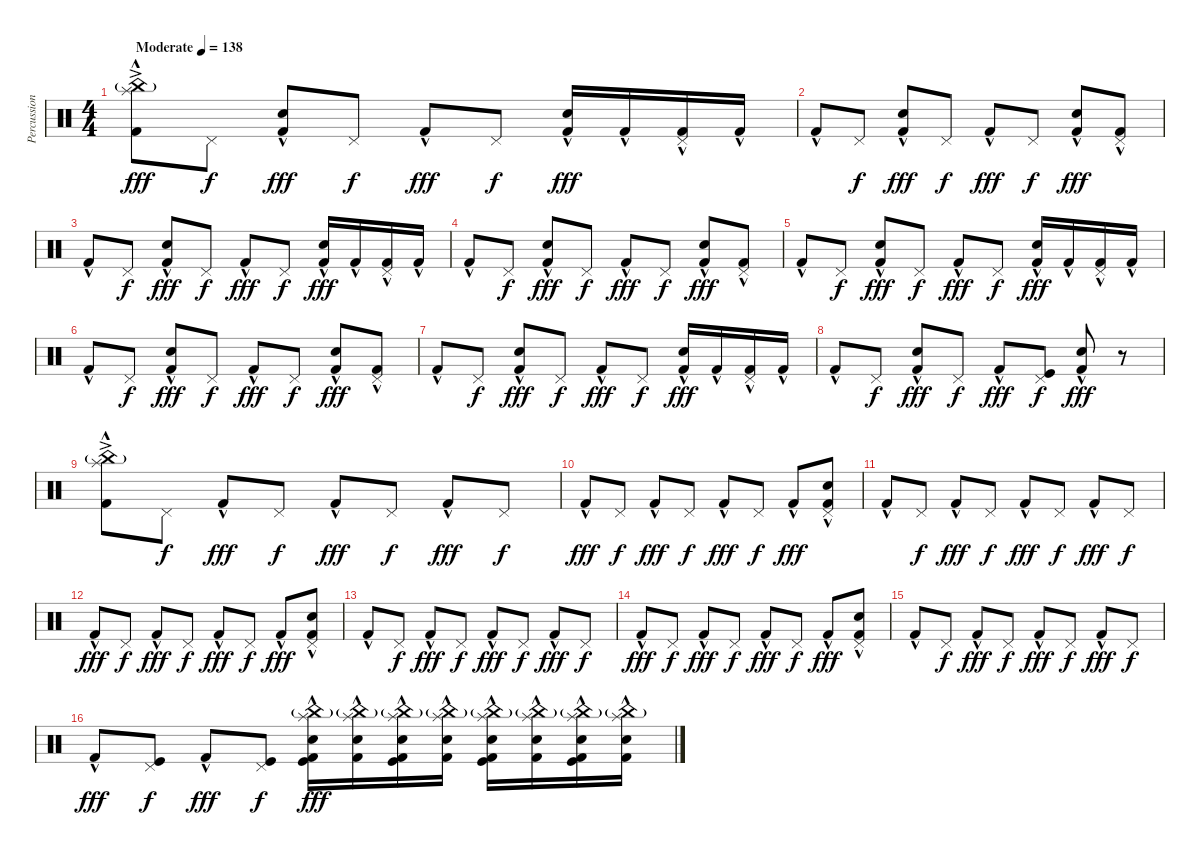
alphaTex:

\track ("Percussions" "Percussion") {instrument percussion}
\staff {score}
\articulation defaults
\ts (4 4)
\tempo (138 "Moderate")
\clef neutral
\ks c
("Splash (hit)"{ac} "China (hit)"{g} "Kick (hit) 2"{hac}).8{dy fff} "Pedal Hi-Hat (hit)".8{dy f} ("Snare (hit) 2" "Kick (hit) 2"{hac}).8{dy fff} "Pedal Hi-Hat (hit)".8{dy f} "Kick (hit) 2"{hac}.8{dy fff} "Pedal Hi-Hat (hit)".8{dy f} ("Snare (hit) 2" "Kick (hit) 2"{hac}).16{dy fff} "Kick (hit) 2"{hac}.16 ("Pedal Hi-Hat (hit)" "Kick (hit) 2"{hac}).16 "Kick (hit) 2"{hac}.16 |
"Kick (hit) 2"{hac}.8 "Pedal Hi-Hat (hit)".8{dy f} ("Snare (hit) 2" "Kick (hit) 2"{hac}).8{dy fff} "Pedal Hi-Hat (hit)".8{dy f} "Kick (hit) 2"{hac}.8{dy fff} "Pedal Hi-Hat (hit)".8{dy f} ("Snare (hit) 2" "Kick (hit) 2"{hac}).8{dy fff} ("Pedal Hi-Hat (hit)" "Kick (hit) 2"{hac}).8 |
"Kick (hit) 2"{hac}.8 "Pedal Hi-Hat (hit)".8{dy f} ("Snare (hit) 2" "Kick (hit) 2"{hac}).8{dy fff} "Pedal Hi-Hat (hit)".8{dy f} "Kick (hit) 2"{hac}.8{dy fff} "Pedal Hi-Hat (hit)".8{dy f} ("Snare (hit) 2" "Kick (hit) 2"{hac}).16{dy fff} "Kick (hit) 2"{hac}.16 ("Pedal Hi-Hat (hit)" "Kick (hit) 2"{hac}).16 "Kick (hit) 2"{hac}.16 |
"Kick (hit) 2"{hac}.8 "Pedal Hi-Hat (hit)".8{dy f} ("Snare (hit) 2" "Kick (hit) 2"{hac}).8{dy fff} "Pedal Hi-Hat (hit)".8{dy f} "Kick (hit) 2"{hac}.8{dy fff} "Pedal Hi-Hat (hit)".8{dy f} ("Snare (hit) 2" "Kick (hit) 2"{hac}).8{dy fff} ("Pedal Hi-Hat (hit)" "Kick (hit) 2"{hac}).8 |
"Kick (hit) 2"{hac}.8 "Pedal Hi-Hat (hit)".8{dy f} ("Snare (hit) 2" "Kick (hit) 2"{hac}).8{dy fff} "Pedal Hi-Hat (hit)".8{dy f} "Kick (hit) 2"{hac}.8{dy fff} "Pedal Hi-Hat (hit)".8{dy f} ("Snare (hit) 2" "Kick (hit) 2"{hac}).16{dy fff} "Kick (hit) 2"{hac}.16 ("Pedal Hi-Hat (hit)" "Kick (hit) 2"{hac}).16 "Kick (hit) 2"{hac}.16 |
"Kick (hit) 2"{hac}.8 "Pedal Hi-Hat (hit)".8{dy f} ("Snare (hit) 2" "Kick (hit) 2"{hac}).8{dy fff} "Pedal Hi-Hat (hit)".8{dy f} "Kick (hit) 2"{hac}.8{dy fff} "Pedal Hi-Hat (hit)".8{dy f} ("Snare (hit) 2" "Kick (hit) 2"{hac}).8{dy fff} ("Pedal Hi-Hat (hit)" "Kick (hit) 2"{hac}).8 |
"Kick (hit) 2"{hac}.8 "Pedal Hi-Hat (hit)".8{dy f} ("Snare (hit) 2" "Kick (hit) 2"{hac}).8{dy fff} "Pedal Hi-Hat (hit)".8{dy f} "Kick (hit) 2"{hac}.8{dy fff} "Pedal Hi-Hat (hit)".8{dy f} ("Snare (hit) 2" "Kick (hit) 2"{hac}).16{dy fff} "Kick (hit) 2"{hac}.16 ("Pedal Hi-Hat (hit)" "Kick (hit) 2"{hac}).16 "Kick (hit) 2"{hac}.16 |
"Kick (hit) 2"{hac}.8 "Pedal Hi-Hat (hit)".8{dy f} ("Snare (hit) 2" "Kick (hit) 2"{hac}).8{dy fff} "Pedal Hi-Hat (hit)".8{dy f} "Kick (hit) 2"{hac}.8{dy fff} ("Kick (hit)" "Pedal Hi-Hat (hit)").8{dy f} ("Snare (hit) 2" "Kick (hit) 2"{hac}).8{dy fff} r.8 |
("Splash (hit)"{ac} "China (hit)"{g} "Kick (hit) 2"{hac}).8 "Pedal Hi-Hat (hit)".8{dy f} "Kick (hit) 2"{hac}.8{dy fff} "Pedal Hi-Hat (hit)".8{dy f} "Kick (hit) 2"{hac}.8{dy fff} "Pedal Hi-Hat (hit)".8{dy f} "Kick (hit) 2"{hac}.8{dy fff} "Pedal Hi-Hat (hit)".8{dy f} |
"Kick (hit) 2"{hac}.8{dy fff} "Pedal Hi-Hat (hit)".8{dy f} "Kick (hit) 2"{hac}.8{dy fff} "Pedal Hi-Hat (hit)".8{dy f} "Kick (hit) 2"{hac}.8{dy fff} "Pedal Hi-Hat (hit)".8{dy f} "Kick (hit) 2"{hac}.8{dy fff} ("Snare (hit) 2" "Pedal Hi-Hat (hit)" "Kick (hit) 2"{hac}).8 |
"Kick (hit) 2"{hac}.8 "Pedal Hi-Hat (hit)".8{dy f} "Kick (hit) 2"{hac}.8{dy fff} "Pedal Hi-Hat (hit)".8{dy f} "Kick (hit) 2"{hac}.8{dy fff} "Pedal Hi-Hat (hit)".8{dy f} "Kick (hit) 2"{hac}.8{dy fff} "Pedal Hi-Hat (hit)".8{dy f} |
"Kick (hit) 2"{hac}.8{dy fff} "Pedal Hi-Hat (hit)".8{dy f} "Kick (hit) 2"{hac}.8{dy fff} "Pedal Hi-Hat (hit)".8{dy f} "Kick (hit) 2"{hac}.8{dy fff} "Pedal Hi-Hat (hit)".8{dy f} "Kick (hit) 2"{hac}.8{dy fff} ("Snare (hit) 2" "Pedal Hi-Hat (hit)" "Kick (hit) 2"{hac}).8 |
"Kick (hit) 2"{hac}.8 "Pedal Hi-Hat (hit)".8{dy f} "Kick (hit) 2"{hac}.8{dy fff} "Pedal Hi-Hat (hit)".8{dy f} "Kick (hit) 2"{hac}.8{dy fff} "Pedal Hi-Hat (hit)".8{dy f} "Kick (hit) 2"{hac}.8{dy fff} "Pedal Hi-Hat (hit)".8{dy f} |
"Kick (hit) 2"{hac}.8{dy fff} "Pedal Hi-Hat (hit)".8{dy f} "Kick (hit) 2"{hac}.8{dy fff} "Pedal Hi-Hat (hit)".8{dy f} "Kick (hit) 2"{hac}.8{dy fff} "Pedal Hi-Hat (hit)".8{dy f} "Kick (hit) 2"{hac}.8{dy fff} ("Snare (hit) 2" "Pedal Hi-Hat (hit)" "Kick (hit) 2"{hac}).8 |
"Kick (hit) 2"{hac}.8 "Pedal Hi-Hat (hit)".8{dy f} "Kick (hit) 2"{hac}.8{dy fff} "Pedal Hi-Hat (hit)".8{dy f} "Kick (hit) 2"{hac}.8{dy fff} "Pedal Hi-Hat (hit)".8{dy f} "Kick (hit) 2"{hac}.8{dy fff} "Pedal Hi-Hat (hit)".8{dy f} |
"Kick (hit) 2"{hac}.8{dy fff} ("Pedal Hi-Hat (hit)" "Kick (hit)").8{dy f} "Kick (hit) 2"{hac}.8{dy fff} ("Pedal Hi-Hat (hit)" "Kick (hit)").8{dy f} ("Splash (hit)" "China (hit)"{g} "Snare (hit) 2" "Kick (hit)" "Kick (hit) 2"{hac}).16{dy fff} ("Splash (hit)" "China (hit)"{g} "Snare (hit) 2" "Kick (hit) 2"{hac}).16 ("Splash (hit)" "China (hit)"{g} "Snare (hit) 2" "Kick (hit)" "Kick (hit) 2"{hac}).16 ("Splash (hit)" "China (hit)"{g} "Snare (hit) 2" "Kick (hit) 2"{hac}).16 ("Splash (hit)" "China (hit)"{g} "Snare (hit) 2" "Kick (hit)" "Kick (hit) 2"{hac}).16 ("Splash (hit)" "China (hit)"{g} "Snare (hit) 2" "Kick (hit) 2"{hac}).16 ("Splash (hit)" "China (hit)"{g} "Snare (hit) 2" "Kick (hit)" "Kick (hit) 2"{hac}).16 ("Splash (hit)" "China (hit)"{g} "Snare (hit) 2" "Kick (hit) 2"{hac}).16
